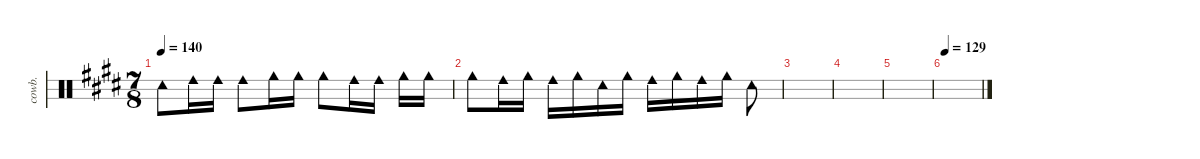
\defaultSystemsLayout 4
\hideDynamics
\bracketExtendMode nobrackets
\track ("Cowbell" "cowb.") {instrument percussion}
\staff {score 3}
\articulation defaults
\ts (7 8)
\tempo 140
\clef neutral
\ks e "Cowbell low (hit)"{acc forcenatural}.8{dy mf} "Cowbell medium (hit)"{acc forcenatural}.16 "Cowbell medium (hit)"{acc forcenatural}.16{beam split} "Cowbell medium (hit)"{acc forcenatural}.8{beam merge} "Cowbell high (hit)"{acc forcenatural}.16 "Cowbell high (hit)"{acc forcenatural}.16{beam split} "Cowbell high (hit)"{acc forcenatural}.8{beam merge} "Cowbell medium (hit)"{acc forcenatural}.16 "Cowbell medium (hit)"{acc forcenatural}.16{beam split} "Cowbell high (hit)"{acc forcenatural}.16 "Cowbell high (hit)"{acc forcenatural}.16
|
"Cowbell high (hit)"{acc forcenatural}.8 "Cowbell medium (hit)"{acc forcenatural}.16 "Cowbell high (hit)"{acc forcenatural}.16{beam split} "Cowbell medium (hit)"{acc forcenatural}.16 "Cowbell high (hit)"{acc forcenatural}.16{beam merge} "Cowbell low (hit)"{acc forcenatural}.16 "Cowbell high (hit)"{acc forcenatural}.16{beam split} "Cowbell medium (hit)"{acc forcenatural}.16 "Cowbell high (hit)"{acc forcenatural}.16{beam merge} "Cowbell medium (hit)"{acc forcenatural}.16 "Cowbell high (hit)"{acc forcenatural}.16{beam split} "Cowbell low (hit)"{acc forcenatural}.8 |
|
|
|
\tempo 129
